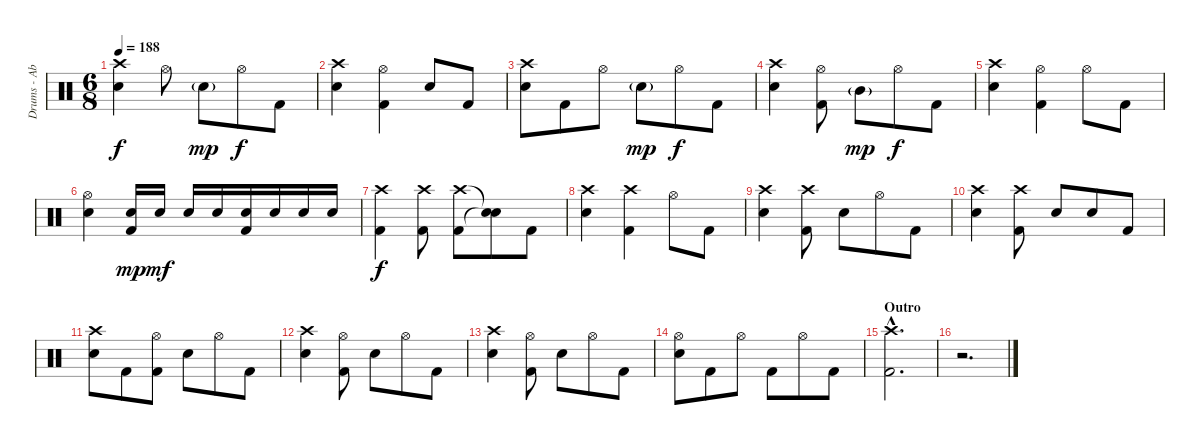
\track ("Drums - Abe Cunningham" "Drums - Ab") {instrument percussion}
\staff {score}
\articulation defaults
\ts (6 8)
\tempo 188
\clef neutral
\ks c
("Crash high (hit)" "Electric Snare (hit)").4{dy f} "Hi-Hat (open)".8 "Electric Snare (hit)"{g}.8{dy mp} "Hi-Hat (open)".8{dy f} "Kick (hit) 2".8 |
("Crash high (hit)" "Electric Snare (hit)").4 ("Hi-Hat (open)" "Kick (hit) 2").4 "Electric Snare (hit)".8 "Kick (hit) 2".8 |
("Crash high (hit)" "Electric Snare (hit)").8 "Kick (hit) 2".8 "Hi-Hat (open)".8 "Electric Snare (hit)"{g}.8{dy mp} "Hi-Hat (open)".8{dy f} "Kick (hit) 2".8 |
("Crash high (hit)" "Electric Snare (hit)").4 ("Hi-Hat (open)" "Kick (hit) 2").8 "Mid Tom (hit)"{g}.8{dy mp} "Hi-Hat (open)".8{dy f} "Kick (hit) 2".8 |
("Crash high (hit)" "Electric Snare (hit)").4 ("Hi-Hat (open)" "Kick (hit) 2").4 "Hi-Hat (open)".8 "Kick (hit) 2".8 |
("Hi-Hat (open)" "Electric Snare (hit)").4 ("Electric Snare (hit)" "Kick (hit) 2").16{dy mp} "Electric Snare (hit)".16{dy mf} "Electric Snare (hit)".16 "Electric Snare (hit)".16 ("Electric Snare (hit)" "Kick (hit) 2").16 "Electric Snare (hit)".16 "Electric Snare (hit)".16 "Electric Snare (hit)".16 |
("Crash high (hit)" "Kick (hit) 2").4{dy f} ("Crash high (hit)" "Kick (hit) 2").8 ("Crash high (hit)" "Kick (hit) 2").8 ("Snare (hit)"{t} "Snare (hit)"{t}).8 "Kick (hit) 2".8 |
("Crash high (hit)" "Electric Snare (hit)").4 ("Crash high (hit)" "Kick (hit) 2").4 "Hi-Hat (open)".8 "Kick (hit) 2".8 |
("Crash high (hit)" "Electric Snare (hit)").4 ("Crash high (hit)" "Kick (hit) 2").8 "Electric Snare (hit)".8 "Hi-Hat (open)".8 "Kick (hit) 2".8 |
("Crash high (hit)" "Electric Snare (hit)").4 ("Crash high (hit)" "Kick (hit) 2").8 "Electric Snare (hit)".8 "Electric Snare (hit)".8 "Kick (hit) 2".8 |
("Crash high (hit)" "Electric Snare (hit)").8 "Kick (hit) 2".8 ("Hi-Hat (open)" "Kick (hit) 2").8 "Electric Snare (hit)".8 "Hi-Hat (open)".8 "Kick (hit) 2".8 |
("Crash high (hit)" "Electric Snare (hit)").4 ("Hi-Hat (open)" "Kick (hit) 2").8 "Electric Snare (hit)".8 "Hi-Hat (open)".8 "Kick (hit) 2".8 |
("Crash high (hit)" "Electric Snare (hit)").4 ("Hi-Hat (open)" "Kick (hit) 2").8 "Electric Snare (hit)".8 "Hi-Hat (open)".8 "Kick (hit) 2".8 |
("Hi-Hat (open)" "Electric Snare (hit)").8 "Kick (hit) 2".8 "Hi-Hat (open)".8 "Kick (hit) 2".8 "Hi-Hat (open)".8 "Kick (hit) 2".8 |
\section ("" "Outro")
("Crash high (hit)"{hac} "Kick (hit) 2"{hac}).2{d} |
r.2{d}
